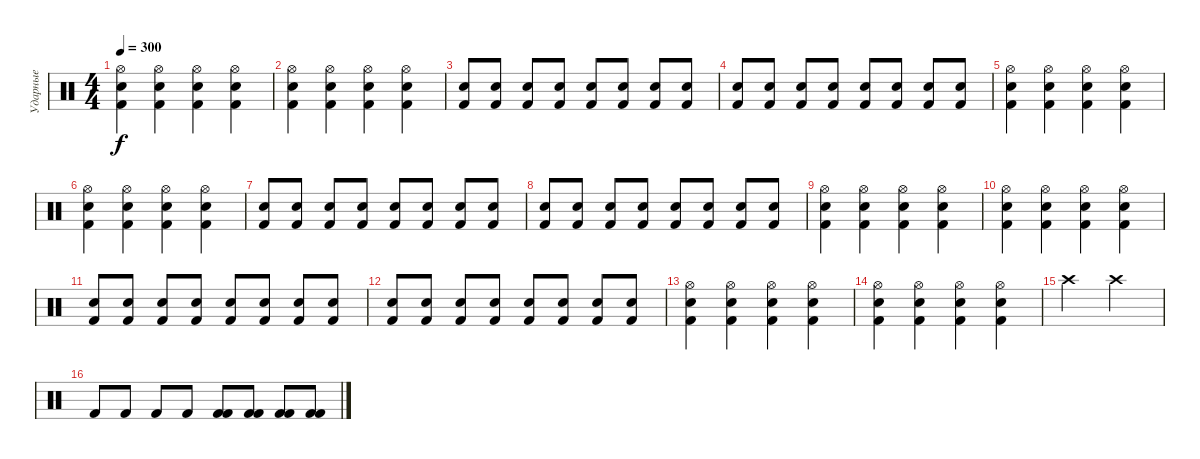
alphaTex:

\track ("Ударные" "Ударные") {instrument percussion}
\staff {score}
\articulation defaults
\ts (4 4)
\tempo 300
\clef neutral
\ks c
("Hi-Hat (open)" "Electric Snare (hit)" "Kick (hit) 2").4{dy f} ("Hi-Hat (open)" "Electric Snare (hit)" "Kick (hit) 2").4 ("Hi-Hat (open)" "Electric Snare (hit)" "Kick (hit) 2").4 ("Hi-Hat (open)" "Electric Snare (hit)" "Kick (hit) 2").4 |
("Hi-Hat (open)" "Electric Snare (hit)" "Kick (hit) 2").4 ("Hi-Hat (open)" "Electric Snare (hit)" "Kick (hit) 2").4 ("Hi-Hat (open)" "Electric Snare (hit)" "Kick (hit) 2").4 ("Hi-Hat (open)" "Electric Snare (hit)" "Kick (hit) 2").4 |
("Kick (hit) 2" "Electric Snare (hit)").8 ("Kick (hit) 2" "Electric Snare (hit)").8 ("Kick (hit) 2" "Electric Snare (hit)").8 ("Kick (hit) 2" "Electric Snare (hit)").8 ("Kick (hit) 2" "Electric Snare (hit)").8 ("Kick (hit) 2" "Electric Snare (hit)").8 ("Kick (hit) 2" "Electric Snare (hit)").8 ("Kick (hit) 2" "Electric Snare (hit)").8 |
("Kick (hit) 2" "Electric Snare (hit)").8 ("Kick (hit) 2" "Electric Snare (hit)").8 ("Kick (hit) 2" "Electric Snare (hit)").8 ("Kick (hit) 2" "Electric Snare (hit)").8 ("Kick (hit) 2" "Electric Snare (hit)").8 ("Kick (hit) 2" "Electric Snare (hit)").8 ("Kick (hit) 2" "Electric Snare (hit)").8 ("Kick (hit) 2" "Electric Snare (hit)").8 |
("Hi-Hat (open)" "Electric Snare (hit)" "Kick (hit) 2").4 ("Hi-Hat (open)" "Electric Snare (hit)" "Kick (hit) 2").4 ("Hi-Hat (open)" "Electric Snare (hit)" "Kick (hit) 2").4 ("Hi-Hat (open)" "Electric Snare (hit)" "Kick (hit) 2").4 |
("Hi-Hat (open)" "Electric Snare (hit)" "Kick (hit) 2").4 ("Hi-Hat (open)" "Electric Snare (hit)" "Kick (hit) 2").4 ("Hi-Hat (open)" "Electric Snare (hit)" "Kick (hit) 2").4 ("Hi-Hat (open)" "Electric Snare (hit)" "Kick (hit) 2").4 |
("Kick (hit) 2" "Electric Snare (hit)").8 ("Kick (hit) 2" "Electric Snare (hit)").8 ("Kick (hit) 2" "Electric Snare (hit)").8 ("Kick (hit) 2" "Electric Snare (hit)").8 ("Kick (hit) 2" "Electric Snare (hit)").8 ("Kick (hit) 2" "Electric Snare (hit)").8 ("Kick (hit) 2" "Electric Snare (hit)").8 ("Kick (hit) 2" "Electric Snare (hit)").8 |
("Kick (hit) 2" "Electric Snare (hit)").8 ("Kick (hit) 2" "Electric Snare (hit)").8 ("Kick (hit) 2" "Electric Snare (hit)").8 ("Kick (hit) 2" "Electric Snare (hit)").8 ("Kick (hit) 2" "Electric Snare (hit)").8 ("Kick (hit) 2" "Electric Snare (hit)").8 ("Kick (hit) 2" "Electric Snare (hit)").8 ("Kick (hit) 2" "Electric Snare (hit)").8 |
("Hi-Hat (open)" "Electric Snare (hit)" "Kick (hit) 2").4 ("Hi-Hat (open)" "Electric Snare (hit)" "Kick (hit) 2").4 ("Hi-Hat (open)" "Electric Snare (hit)" "Kick (hit) 2").4 ("Hi-Hat (open)" "Electric Snare (hit)" "Kick (hit) 2").4 |
("Hi-Hat (open)" "Electric Snare (hit)" "Kick (hit) 2").4 ("Hi-Hat (open)" "Electric Snare (hit)" "Kick (hit) 2").4 ("Hi-Hat (open)" "Electric Snare (hit)" "Kick (hit) 2").4 ("Hi-Hat (open)" "Electric Snare (hit)" "Kick (hit) 2").4 |
("Kick (hit) 2" "Electric Snare (hit)").8 ("Kick (hit) 2" "Electric Snare (hit)").8 ("Kick (hit) 2" "Electric Snare (hit)").8 ("Kick (hit) 2" "Electric Snare (hit)").8 ("Kick (hit) 2" "Electric Snare (hit)").8 ("Kick (hit) 2" "Electric Snare (hit)").8 ("Kick (hit) 2" "Electric Snare (hit)").8 ("Kick (hit) 2" "Electric Snare (hit)").8 |
("Kick (hit) 2" "Electric Snare (hit)").8 ("Kick (hit) 2" "Electric Snare (hit)").8 ("Kick (hit) 2" "Electric Snare (hit)").8 ("Kick (hit) 2" "Electric Snare (hit)").8 ("Kick (hit) 2" "Electric Snare (hit)").8 ("Kick (hit) 2" "Electric Snare (hit)").8 ("Kick (hit) 2" "Electric Snare (hit)").8 ("Kick (hit) 2" "Electric Snare (hit)").8 |
("Hi-Hat (open)" "Electric Snare (hit)" "Kick (hit) 2").4 ("Hi-Hat (open)" "Electric Snare (hit)" "Kick (hit) 2").4 ("Hi-Hat (open)" "Electric Snare (hit)" "Kick (hit) 2").4 ("Hi-Hat (open)" "Electric Snare (hit)" "Kick (hit) 2").4 |
("Hi-Hat (open)" "Electric Snare (hit)" "Kick (hit) 2").4 ("Hi-Hat (open)" "Electric Snare (hit)" "Kick (hit) 2").4 ("Hi-Hat (open)" "Electric Snare (hit)" "Kick (hit) 2").4 ("Hi-Hat (open)" "Electric Snare (hit)" "Kick (hit) 2").4 |
"Crash high (hit)".2 "Crash high (hit)".2 |
"Kick (hit) 2".8 "Kick (hit) 2".8 "Kick (hit) 2".8 "Kick (hit) 2".8 ("Kick (hit) 2" "Kick (hit) 2").8 ("Kick (hit) 2" "Kick (hit) 2").8 ("Kick (hit) 2" "Kick (hit) 2").8 ("Kick (hit) 2" "Kick (hit) 2").8
